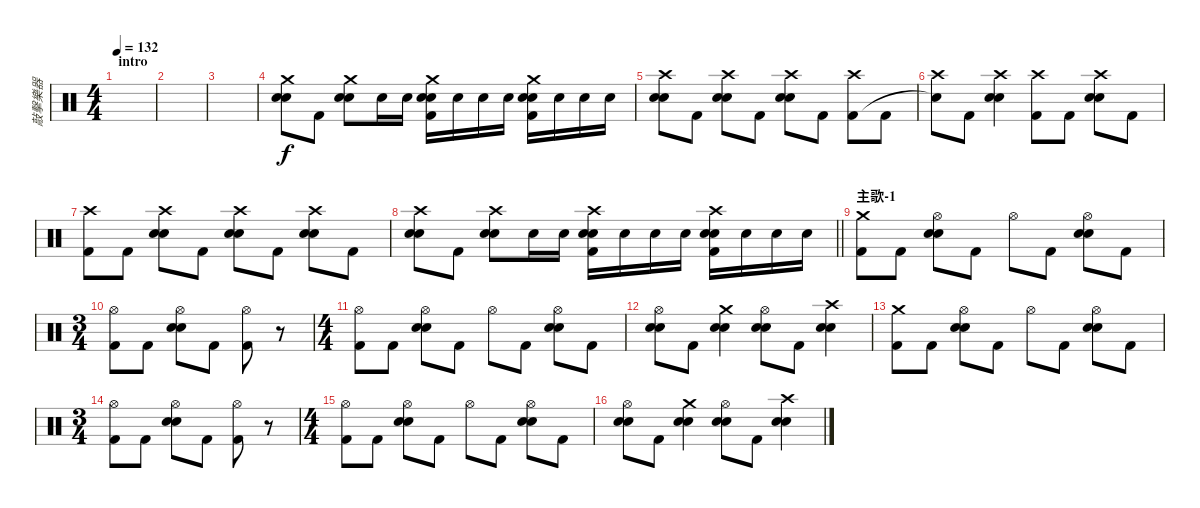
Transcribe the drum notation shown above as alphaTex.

\track ("敲擊樂器" "敲擊樂器") {instrument percussion}
\staff {score}
\articulation defaults
\ts (4 4)
\section ("" "intro")
\tempo 132
\clef neutral
\ks c
|
|
|
("Crash medium (hit)" "Electric Snare (hit)" "Snare (hit) 2").8 "Kick (hit) 2".8 ("Crash medium (hit)" "Electric Snare (hit)" "Snare (hit) 2").8 "Snare (hit) 2".16 "Snare (hit) 2".16 ("Crash medium (hit)" "Electric Snare (hit)" "Snare (hit) 2" "Kick (hit) 2").16 "Snare (hit) 2".16 "Snare (hit) 2".16 "Snare (hit) 2".16 ("Crash medium (hit)" "Electric Snare (hit)" "Snare (hit) 2" "Kick (hit) 2").16 "Snare (hit) 2".16 "Snare (hit) 2".16 "Snare (hit) 2".16 |
("Crash high (hit)" "Electric Snare (hit)" "Snare (hit) 2").8 "Kick (hit) 2".8 ("Crash high (hit)" "Electric Snare (hit)" "Snare (hit) 2").8 "Kick (hit) 2".8 ("Crash high (hit)" "Electric Snare (hit)" "Snare (hit) 2").8 "Kick (hit) 2".8 ("Crash high (hit)" "Kick (hit) 2").8 "Kick (hit) 2".8 |
("Crash high (hit)" "Snare (hit)"{t}).8 "Kick (hit) 2".8 ("Crash high (hit)" "Electric Snare (hit)" "Snare (hit) 2").4 ("Crash high (hit)" "Kick (hit) 2").8 "Kick (hit) 2".8 ("Crash high (hit)" "Electric Snare (hit)" "Snare (hit) 2").8 "Kick (hit) 2".8 |
("Crash high (hit)" "Kick (hit) 2").8 "Kick (hit) 2".8 ("Crash high (hit)" "Electric Snare (hit)" "Snare (hit) 2").8 "Kick (hit) 2".8 ("Crash high (hit)" "Electric Snare (hit)" "Snare (hit) 2").8 "Kick (hit) 2".8 ("Crash high (hit)" "Electric Snare (hit)" "Snare (hit) 2").8 "Kick (hit) 2".8 |
\barLineRight lightlight
("Crash high (hit)" "Electric Snare (hit)" "Snare (hit) 2").8 "Kick (hit) 2".8 ("Crash high (hit)" "Electric Snare (hit)" "Snare (hit) 2").8 "Snare (hit) 2".16 "Snare (hit) 2".16 ("Crash high (hit)" "Electric Snare (hit)" "Snare (hit) 2" "Kick (hit) 2").16 "Snare (hit) 2".16 "Snare (hit) 2".16 "Snare (hit) 2".16 ("Crash high (hit)" "Electric Snare (hit)" "Snare (hit) 2" "Kick (hit) 2").16 "Snare (hit) 2".16 "Snare (hit) 2".16 "Snare (hit) 2".16 |
\section ("" "主歌-1")
("Crash medium (hit)" "Kick (hit) 2").8 "Kick (hit) 2".8 ("Hi-Hat (open)" "Electric Snare (hit)" "Snare (hit) 2").8 "Kick (hit) 2".8 "Hi-Hat (open)".8 "Kick (hit) 2".8 ("Hi-Hat (open)" "Electric Snare (hit)" "Snare (hit) 2").8 "Kick (hit) 2".8 |
\ts (3 4)
("Hi-Hat (open)" "Kick (hit) 2").8 "Kick (hit) 2".8 ("Hi-Hat (open)" "Electric Snare (hit)" "Snare (hit) 2").8 "Kick (hit) 2".8 ("Hi-Hat (open)" "Kick (hit) 2").8 r.8 |
\ts (4 4)
("Hi-Hat (open)" "Kick (hit) 2").8 "Kick (hit) 2".8 ("Hi-Hat (open)" "Electric Snare (hit)" "Snare (hit) 2").8 "Kick (hit) 2".8 "Hi-Hat (open)".8 "Kick (hit) 2".8 ("Hi-Hat (open)" "Electric Snare (hit)" "Snare (hit) 2").8 "Kick (hit) 2".8 |
("Hi-Hat (open)" "Electric Snare (hit)" "Snare (hit) 2").8 "Kick (hit) 2".8 ("Crash medium (hit)" "Electric Snare (hit)" "Snare (hit) 2").4 ("Hi-Hat (open)" "Electric Snare (hit)" "Snare (hit) 2").8 "Kick (hit) 2".8 ("Crash high (hit)" "Electric Snare (hit)" "Snare (hit) 2").4 |
("Crash medium (hit)" "Kick (hit) 2").8 "Kick (hit) 2".8 ("Hi-Hat (open)" "Electric Snare (hit)" "Snare (hit) 2").8 "Kick (hit) 2".8 "Hi-Hat (open)".8 "Kick (hit) 2".8 ("Hi-Hat (open)" "Electric Snare (hit)" "Snare (hit) 2").8 "Kick (hit) 2".8 |
\ts (3 4)
("Hi-Hat (open)" "Kick (hit) 2").8 "Kick (hit) 2".8 ("Hi-Hat (open)" "Electric Snare (hit)" "Snare (hit) 2").8 "Kick (hit) 2".8 ("Hi-Hat (open)" "Kick (hit) 2").8 r.8 |
\ts (4 4)
("Hi-Hat (open)" "Kick (hit) 2").8 "Kick (hit) 2".8 ("Hi-Hat (open)" "Electric Snare (hit)" "Snare (hit) 2").8 "Kick (hit) 2".8 "Hi-Hat (open)".8 "Kick (hit) 2".8 ("Hi-Hat (open)" "Electric Snare (hit)" "Snare (hit) 2").8 "Kick (hit) 2".8 |
("Hi-Hat (open)" "Electric Snare (hit)" "Snare (hit) 2").8 "Kick (hit) 2".8 ("Crash medium (hit)" "Electric Snare (hit)" "Snare (hit) 2").4 ("Hi-Hat (open)" "Electric Snare (hit)" "Snare (hit) 2").8 "Kick (hit) 2".8 ("Crash high (hit)" "Electric Snare (hit)" "Snare (hit) 2").4
